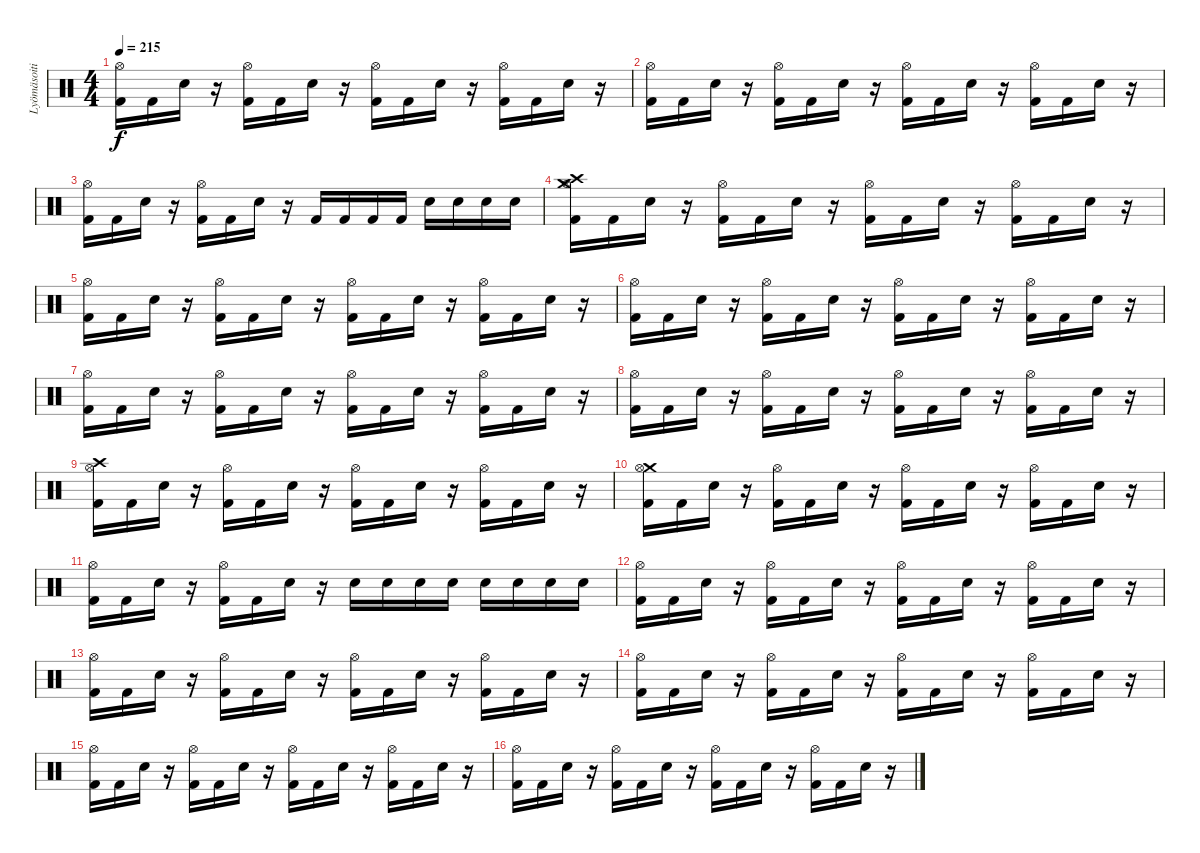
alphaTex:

\track ("Lyömäsoitin" "Lyömäsoiti") {instrument percussion}
\staff {score}
\articulation defaults
\ts (4 4)
\tempo 215
\clef neutral
\ks c
("Hi-Hat (open)" "Kick (hit) 2").16{dy f} "Kick (hit) 2".16 "Electric Snare (hit)".16 r.16 ("Hi-Hat (open)" "Kick (hit) 2").16 "Kick (hit) 2".16 "Electric Snare (hit)".16 r.16 ("Hi-Hat (open)" "Kick (hit) 2").16 "Kick (hit) 2".16 "Electric Snare (hit)".16 r.16 ("Hi-Hat (open)" "Kick (hit) 2").16 "Kick (hit) 2".16 "Electric Snare (hit)".16 r.16 |
("Hi-Hat (open)" "Kick (hit) 2").16 "Kick (hit) 2".16 "Electric Snare (hit)".16 r.16 ("Hi-Hat (open)" "Kick (hit) 2").16 "Kick (hit) 2".16 "Electric Snare (hit)".16 r.16 ("Hi-Hat (open)" "Kick (hit) 2").16 "Kick (hit) 2".16 "Electric Snare (hit)".16 r.16 ("Hi-Hat (open)" "Kick (hit) 2").16 "Kick (hit) 2".16 "Electric Snare (hit)".16 r.16 |
("Hi-Hat (open)" "Kick (hit) 2").16 "Kick (hit) 2".16 "Electric Snare (hit)".16 r.16 ("Hi-Hat (open)" "Kick (hit) 2").16 "Kick (hit) 2".16 "Electric Snare (hit)".16 r.16 "Kick (hit) 2".16 "Kick (hit) 2".16 "Kick (hit) 2".16 "Kick (hit) 2".16 "Electric Snare (hit)".16 "Electric Snare (hit)".16 "Electric Snare (hit)".16 "Electric Snare (hit)".16 |
("Crash medium (hit)" "Crash high (hit)" "Hi-Hat (open)" "Kick (hit) 2").16 "Kick (hit) 2".16 "Electric Snare (hit)".16 r.16 ("Hi-Hat (open)" "Kick (hit) 2").16 "Kick (hit) 2".16 "Electric Snare (hit)".16 r.16 ("Hi-Hat (open)" "Kick (hit) 2").16 "Kick (hit) 2".16 "Electric Snare (hit)".16 r.16 ("Hi-Hat (open)" "Kick (hit) 2").16 "Kick (hit) 2".16 "Electric Snare (hit)".16 r.16 |
("Hi-Hat (open)" "Kick (hit) 2").16 "Kick (hit) 2".16 "Electric Snare (hit)".16 r.16 ("Hi-Hat (open)" "Kick (hit) 2").16 "Kick (hit) 2".16 "Electric Snare (hit)".16 r.16 ("Hi-Hat (open)" "Kick (hit) 2").16 "Kick (hit) 2".16 "Electric Snare (hit)".16 r.16 ("Hi-Hat (open)" "Kick (hit) 2").16 "Kick (hit) 2".16 "Electric Snare (hit)".16 r.16 |
("Hi-Hat (open)" "Kick (hit) 2").16 "Kick (hit) 2".16 "Electric Snare (hit)".16 r.16 ("Hi-Hat (open)" "Kick (hit) 2").16 "Kick (hit) 2".16 "Electric Snare (hit)".16 r.16 ("Hi-Hat (open)" "Kick (hit) 2").16 "Kick (hit) 2".16 "Electric Snare (hit)".16 r.16 ("Hi-Hat (open)" "Kick (hit) 2").16 "Kick (hit) 2".16 "Electric Snare (hit)".16 r.16 |
("Hi-Hat (open)" "Kick (hit) 2").16 "Kick (hit) 2".16 "Electric Snare (hit)".16 r.16 ("Hi-Hat (open)" "Kick (hit) 2").16 "Kick (hit) 2".16 "Electric Snare (hit)".16 r.16 ("Hi-Hat (open)" "Kick (hit) 2").16 "Kick (hit) 2".16 "Electric Snare (hit)".16 r.16 ("Hi-Hat (open)" "Kick (hit) 2").16 "Kick (hit) 2".16 "Electric Snare (hit)".16 r.16 |
("Hi-Hat (open)" "Kick (hit) 2").16 "Kick (hit) 2".16 "Electric Snare (hit)".16 r.16 ("Hi-Hat (open)" "Kick (hit) 2").16 "Kick (hit) 2".16 "Electric Snare (hit)".16 r.16 ("Hi-Hat (open)" "Kick (hit) 2").16 "Kick (hit) 2".16 "Electric Snare (hit)".16 r.16 ("Hi-Hat (open)" "Kick (hit) 2").16 "Kick (hit) 2".16 "Electric Snare (hit)".16 r.16 |
("Crash high (hit)" "Hi-Hat (open)" "Kick (hit) 2").16 "Kick (hit) 2".16 "Electric Snare (hit)".16 r.16 ("Hi-Hat (open)" "Kick (hit) 2").16 "Kick (hit) 2".16 "Electric Snare (hit)".16 r.16 ("Hi-Hat (open)" "Kick (hit) 2").16 "Kick (hit) 2".16 "Electric Snare (hit)".16 r.16 ("Hi-Hat (open)" "Kick (hit) 2").16 "Kick (hit) 2".16 "Electric Snare (hit)".16 r.16 |
("Crash medium (hit)" "Hi-Hat (open)" "Kick (hit) 2").16 "Kick (hit) 2".16 "Electric Snare (hit)".16 r.16 ("Hi-Hat (open)" "Kick (hit) 2").16 "Kick (hit) 2".16 "Electric Snare (hit)".16 r.16 ("Hi-Hat (open)" "Kick (hit) 2").16 "Kick (hit) 2".16 "Electric Snare (hit)".16 r.16 ("Hi-Hat (open)" "Kick (hit) 2").16 "Kick (hit) 2".16 "Electric Snare (hit)".16 r.16 |
("Hi-Hat (open)" "Kick (hit) 2").16 "Kick (hit) 2".16 "Electric Snare (hit)".16 r.16 ("Hi-Hat (open)" "Kick (hit) 2").16 "Kick (hit) 2".16 "Electric Snare (hit)".16 r.16 "Electric Snare (hit)".16 "Electric Snare (hit)".16 "Electric Snare (hit)".16 "Electric Snare (hit)".16 "Electric Snare (hit)".16 "Electric Snare (hit)".16 "Electric Snare (hit)".16 "Electric Snare (hit)".16 |
("Hi-Hat (open)" "Kick (hit) 2").16 "Kick (hit) 2".16 "Electric Snare (hit)".16 r.16 ("Hi-Hat (open)" "Kick (hit) 2").16 "Kick (hit) 2".16 "Electric Snare (hit)".16 r.16 ("Hi-Hat (open)" "Kick (hit) 2").16 "Kick (hit) 2".16 "Electric Snare (hit)".16 r.16 ("Hi-Hat (open)" "Kick (hit) 2").16 "Kick (hit) 2".16 "Electric Snare (hit)".16 r.16 |
("Hi-Hat (open)" "Kick (hit) 2").16 "Kick (hit) 2".16 "Electric Snare (hit)".16 r.16 ("Hi-Hat (open)" "Kick (hit) 2").16 "Kick (hit) 2".16 "Electric Snare (hit)".16 r.16 ("Hi-Hat (open)" "Kick (hit) 2").16 "Kick (hit) 2".16 "Electric Snare (hit)".16 r.16 ("Hi-Hat (open)" "Kick (hit) 2").16 "Kick (hit) 2".16 "Electric Snare (hit)".16 r.16 |
("Hi-Hat (open)" "Kick (hit) 2").16 "Kick (hit) 2".16 "Electric Snare (hit)".16 r.16 ("Hi-Hat (open)" "Kick (hit) 2").16 "Kick (hit) 2".16 "Electric Snare (hit)".16 r.16 ("Hi-Hat (open)" "Kick (hit) 2").16 "Kick (hit) 2".16 "Electric Snare (hit)".16 r.16 ("Hi-Hat (open)" "Kick (hit) 2").16 "Kick (hit) 2".16 "Electric Snare (hit)".16 r.16 |
("Hi-Hat (open)" "Kick (hit) 2").16 "Kick (hit) 2".16 "Electric Snare (hit)".16 r.16 ("Hi-Hat (open)" "Kick (hit) 2").16 "Kick (hit) 2".16 "Electric Snare (hit)".16 r.16 ("Hi-Hat (open)" "Kick (hit) 2").16 "Kick (hit) 2".16 "Electric Snare (hit)".16 r.16 ("Hi-Hat (open)" "Kick (hit) 2").16 "Kick (hit) 2".16 "Electric Snare (hit)".16 r.16 |
("Hi-Hat (open)" "Kick (hit) 2").16 "Kick (hit) 2".16 "Electric Snare (hit)".16 r.16 ("Hi-Hat (open)" "Kick (hit) 2").16 "Kick (hit) 2".16 "Electric Snare (hit)".16 r.16 ("Hi-Hat (open)" "Kick (hit) 2").16 "Kick (hit) 2".16 "Electric Snare (hit)".16 r.16 ("Hi-Hat (open)" "Kick (hit) 2").16 "Kick (hit) 2".16 "Electric Snare (hit)".16 r.16
